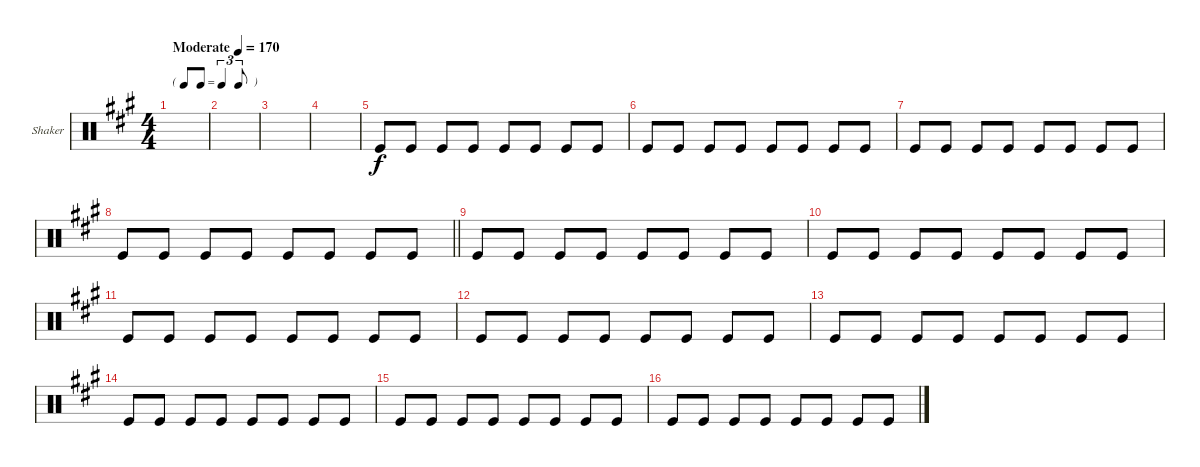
\bracketExtendMode groupsimilarinstruments
\firstSystemTrackNameOrientation horizontal
\otherSystemsTrackNameOrientation horizontal
\track ("Shaker" "Shaker") {instrument percussion}
\staff {score}
\articulation defaults
\ts (4 4)
\beaming (8 2 2 2 2)
\tf triplet8th
\tempo (170 "Moderate")
\clef neutral
\scale
0.526971
\ks a
|
\scale
0.236515 |
\scale
0.236515 |
\scale
0.333333 |
\scale
0.333333 "Kick (hit)".8 "Kick (hit)".8 "Kick (hit)".8 "Kick (hit)".8 "Kick (hit)".8 "Kick (hit)".8 "Kick (hit)".8 "Kick (hit)".8 |
\scale
0.333333 "Kick (hit)".8 "Kick (hit)".8 "Kick (hit)".8 "Kick (hit)".8 "Kick (hit)".8 "Kick (hit)".8 "Kick (hit)".8 "Kick (hit)".8 |
\scale
0.333333 "Kick (hit)".8 "Kick (hit)".8 "Kick (hit)".8 "Kick (hit)".8 "Kick (hit)".8 "Kick (hit)".8 "Kick (hit)".8 "Kick (hit)".8 |
\scale
0.333333
\barLineRight lightlight "Kick (hit)".8 "Kick (hit)".8 "Kick (hit)".8 "Kick (hit)".8 "Kick (hit)".8 "Kick (hit)".8 "Kick (hit)".8 "Kick (hit)".8
|
\scale
0.333333 "Kick (hit)".8 "Kick (hit)".8 "Kick (hit)".8 "Kick (hit)".8 "Kick (hit)".8 "Kick (hit)".8 "Kick (hit)".8 "Kick (hit)".8 |
\scale
0.333333 "Kick (hit)".8 "Kick (hit)".8 "Kick (hit)".8 "Kick (hit)".8 "Kick (hit)".8 "Kick (hit)".8 "Kick (hit)".8 "Kick (hit)".8 |
\scale
0.333333 "Kick (hit)".8 "Kick (hit)".8 "Kick (hit)".8 "Kick (hit)".8 "Kick (hit)".8 "Kick (hit)".8 "Kick (hit)".8 "Kick (hit)".8 |
\scale
0.333333 "Kick (hit)".8 "Kick (hit)".8 "Kick (hit)".8 "Kick (hit)".8 "Kick (hit)".8 "Kick (hit)".8 "Kick (hit)".8 "Kick (hit)".8 |
\scale
0.333333 "Kick (hit)".8 "Kick (hit)".8 "Kick (hit)".8 "Kick (hit)".8 "Kick (hit)".8 "Kick (hit)".8 "Kick (hit)".8 "Kick (hit)".8 |
\scale
0.333333 "Kick (hit)".8 "Kick (hit)".8 "Kick (hit)".8 "Kick (hit)".8 "Kick (hit)".8 "Kick (hit)".8 "Kick (hit)".8 "Kick (hit)".8 |
\scale
0.333333 "Kick (hit)".8 "Kick (hit)".8 "Kick (hit)".8 "Kick (hit)".8 "Kick (hit)".8 "Kick (hit)".8 "Kick (hit)".8 "Kick (hit)".8 |
\scale
0.333333 "Kick (hit)".8 "Kick (hit)".8 "Kick (hit)".8 "Kick (hit)".8 "Kick (hit)".8 "Kick (hit)".8 "Kick (hit)".8 "Kick (hit)".8
